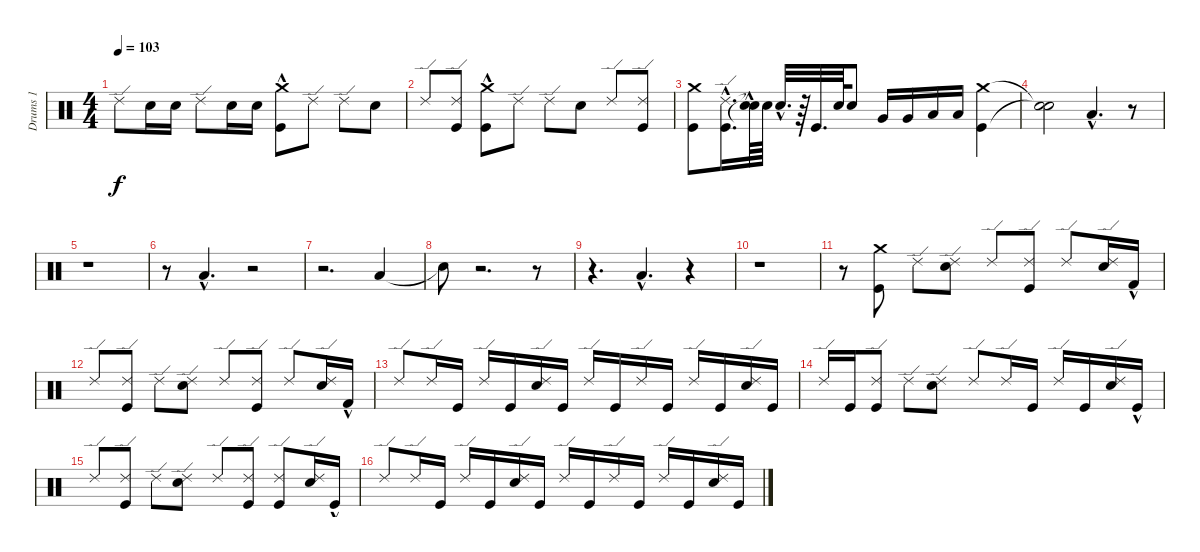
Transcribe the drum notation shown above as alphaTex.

\track ("Drums 1" "Drums 1") {instrument percussion}
\staff {score}
\articulation defaults
\ts (4 4)
\tempo 103
\clef neutral
\ks c "Ride (edge) 2".8{dy f} "Electric Snare (hit)".16 "Electric Snare (hit)".16 "Ride (edge) 2".8 "Electric Snare (hit)".16 "Electric Snare (hit)".16
("Kick (hit)"{hac} "Crash medium (hit)").8 "Ride (edge) 2".8 "Ride (edge) 2".8 "Electric Snare (hit)".8 |
"Ride (edge) 2".8 ("Kick (hit)" "Ride (edge) 2").8 ("Kick (hit)"{hac} "Crash medium (hit)").8 "Ride (edge) 2".8 "Ride (edge) 2".8 "Electric Snare (hit)".8 "Ride (edge) 2".8 ("Kick (hit)" "Ride (edge) 2").8 |
("Kick (hit)" "Crash medium (hit)").8 ("Kick (hit)"{hac} "Ride (edge) 2"{hac}).16{d} ("Snare (hit)"{hac t} "Snare (hit)"{t}).64 "Electric Snare (hit)".64 "Electric Snare (hit)"{hac}.32{d} r.64 "Kick (hit)".32{d} "Electric Snare (hit)".64 "Electric Snare (hit)".8 "Very Low Tom (hit)".16 "Very Low Tom (hit)".16 "Low Floor Tom (hit)".16 "Low Floor Tom (hit)".16 ("Crash medium (hit)" "Kick (hit)").4 |
("Snare (hit)"{t} "Snare (hit)"{t}).2 "Low Floor Tom (hit)"{hac}.4{d} r.8 |
r.1 |
r.8 "Low Floor Tom (hit)"{hac}.4{d} r.2 |
r.2{d} "Low Floor Tom (hit)".4 |
"Snare (hit)"{t}.8 r.2{d} r.8 |
r.4{d} "Low Floor Tom (hit)"{hac}.4{d} r.4 |
r.1 |
r.8 ("Kick (hit)" "Crash medium (hit)").8 "Ride (edge) 2".8 ("Electric Snare (hit)" "Ride (edge) 2").8 "Ride (edge) 2".8 ("Kick (hit)" "Ride (edge) 2").8 "Ride (edge) 2".8 ("Electric Snare (hit)" "Ride (edge) 2").16 "Kick (hit) 2"{hac}.16 |
"Ride (edge) 2".8 ("Kick (hit)" "Ride (edge) 2").8 "Ride (edge) 2".8 ("Electric Snare (hit)" "Ride (edge) 2").8 "Ride (edge) 2".8 ("Kick (hit)" "Ride (edge) 2").8 "Ride (edge) 2".8 ("Electric Snare (hit)" "Ride (edge) 2").16 "Kick (hit) 2"{hac}.16 |
"Ride (edge) 2".8 "Ride (edge) 2".16 "Kick (hit)".16 "Ride (edge) 2".16 "Kick (hit)".16 ("Electric Snare (hit)" "Ride (edge) 2").16 "Kick (hit)".16 "Ride (edge) 2".16 "Kick (hit)".16 "Ride (edge) 2".16 "Kick (hit)".16 "Ride (edge) 2".16 "Kick (hit)".16 ("Electric Snare (hit)" "Ride (edge) 2").16 "Kick (hit)".16 |
"Ride (edge) 2".16 "Kick (hit)".16 ("Kick (hit)" "Ride (edge) 2").8 "Ride (edge) 2".8 ("Electric Snare (hit)" "Ride (edge) 2").8 "Ride (edge) 2".8 "Ride (edge) 2".16 "Kick (hit)".16 "Ride (edge) 2".16 "Kick (hit)".16 ("Electric Snare (hit)" "Ride (edge) 2").16 "Kick (hit)"{hac}.16 |
"Ride (edge) 2".8 ("Kick (hit)" "Ride (edge) 2").8 "Ride (edge) 2".8 ("Electric Snare (hit)" "Ride (edge) 2").8 "Ride (edge) 2".8 ("Kick (hit)" "Ride (edge) 2").8 ("Kick (hit)" "Ride (edge) 2").8 ("Electric Snare (hit)" "Ride (edge) 2").16 "Kick (hit)"{hac}.16 |
"Ride (edge) 2".8 "Ride (edge) 2".16 "Kick (hit)".16 "Ride (edge) 2".16 "Kick (hit)".16 ("Electric Snare (hit)" "Ride (edge) 2").16 "Kick (hit)".16 "Ride (edge) 2".16 "Kick (hit)".16 "Ride (edge) 2".16 "Kick (hit)".16 "Ride (edge) 2".16 "Kick (hit)".16 ("Electric Snare (hit)" "Ride (edge) 2").16 "Kick (hit)".16
